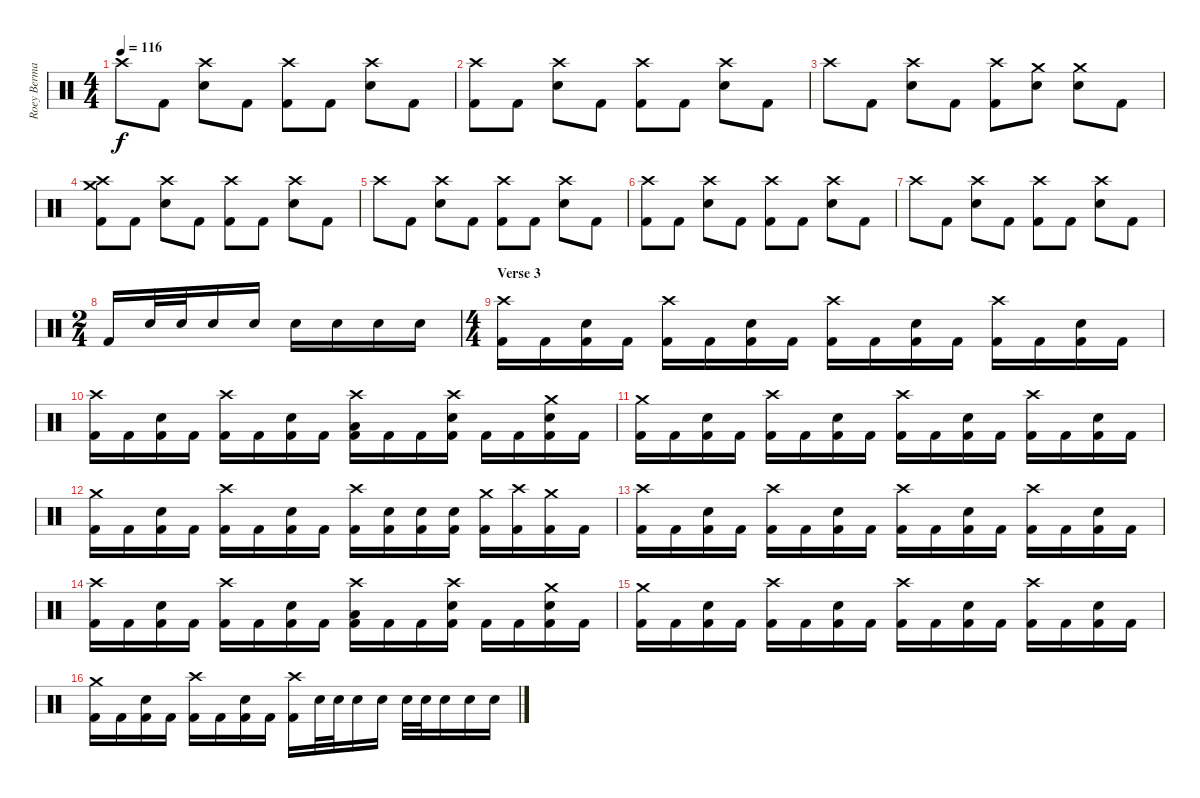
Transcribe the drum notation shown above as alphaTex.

\track ("Roey Berman" "Roey Berma") {instrument percussion}
\staff {score}
\articulation defaults
\ts (4 4)
\tempo 116
\clef neutral
\ks c "Crash high (hit)".8{dy f} "Kick (hit) 2".8
("Crash high (hit)" "Electric Snare (hit)").8 "Kick (hit) 2".8 ("Crash high (hit)" "Kick (hit) 2").8 "Kick (hit) 2".8 ("Crash high (hit)" "Electric Snare (hit)").8 "Kick (hit) 2".8 |
("Crash high (hit)" "Kick (hit) 2").8 "Kick (hit) 2".8 ("Crash high (hit)" "Electric Snare (hit)").8 "Kick (hit) 2".8 ("Crash high (hit)" "Kick (hit) 2").8 "Kick (hit) 2".8 ("Crash high (hit)" "Electric Snare (hit)").8 "Kick (hit) 2".8 |
"Crash high (hit)".8 "Kick (hit) 2".8 ("Crash high (hit)" "Electric Snare (hit)").8 "Kick (hit) 2".8 ("Crash high (hit)" "Kick (hit) 2").8 ("Crash medium (hit)" "Electric Snare (hit)").8 ("Crash medium (hit)" "Electric Snare (hit)").8 "Kick (hit) 2".8 |
("Crash high (hit)" "Crash medium (hit)" "Kick (hit) 2").8 "Kick (hit) 2".8 ("Crash high (hit)" "Electric Snare (hit)").8 "Kick (hit) 2".8 ("Crash high (hit)" "Kick (hit) 2").8 "Kick (hit) 2".8 ("Crash high (hit)" "Electric Snare (hit)").8 "Kick (hit) 2".8 |
"Crash high (hit)".8 "Kick (hit) 2".8 ("Crash high (hit)" "Electric Snare (hit)").8 "Kick (hit) 2".8 ("Crash high (hit)" "Kick (hit) 2").8 "Kick (hit) 2".8 ("Crash high (hit)" "Electric Snare (hit)").8 "Kick (hit) 2".8 |
("Crash high (hit)" "Kick (hit) 2").8 "Kick (hit) 2".8 ("Crash high (hit)" "Electric Snare (hit)").8 "Kick (hit) 2".8 ("Crash high (hit)" "Kick (hit) 2").8 "Kick (hit) 2".8 ("Crash high (hit)" "Electric Snare (hit)").8 "Kick (hit) 2".8 |
"Crash high (hit)".8 "Kick (hit) 2".8 ("Crash high (hit)" "Electric Snare (hit)").8 "Kick (hit) 2".8 ("Crash high (hit)" "Kick (hit) 2").8 "Kick (hit) 2".8 ("Crash high (hit)" "Electric Snare (hit)").8 "Kick (hit) 2".8 |
\ts (2 4)
"Kick (hit) 2".16 "Electric Snare (hit)".32 "Electric Snare (hit)".32 "Electric Snare (hit)".16 "Electric Snare (hit)".16 "Electric Snare (hit)".16 "Electric Snare (hit)".16 "Electric Snare (hit)".16 "Electric Snare (hit)".16 |
\ts (4 4)
\section ("" "Verse 3")
("Crash high (hit)" "Kick (hit) 2").16 "Kick (hit) 2".16 ("Electric Snare (hit)" "Kick (hit) 2").16 "Kick (hit) 2".16 ("Crash high (hit)" "Kick (hit) 2").16 "Kick (hit) 2".16 ("Electric Snare (hit)" "Kick (hit) 2").16 "Kick (hit) 2".16 ("Crash high (hit)" "Kick (hit) 2").16 "Kick (hit) 2".16 ("Electric Snare (hit)" "Kick (hit) 2").16 "Kick (hit) 2".16 ("Crash high (hit)" "Kick (hit) 2").16 "Kick (hit) 2".16 ("Electric Snare (hit)" "Kick (hit) 2").16 "Kick (hit) 2".16 |
("Crash high (hit)" "Kick (hit) 2").16 "Kick (hit) 2".16 ("Electric Snare (hit)" "Kick (hit) 2").16 "Kick (hit) 2".16 ("Crash high (hit)" "Kick (hit) 2").16 "Kick (hit) 2".16 ("Electric Snare (hit)" "Kick (hit) 2").16 "Kick (hit) 2".16 ("Crash high (hit)" "Low Tom (hit)" "Kick (hit) 2").16 "Kick (hit) 2".16 "Kick (hit) 2".16 ("Crash high (hit)" "Electric Snare (hit)" "Kick (hit) 2").16 "Kick (hit) 2".16 "Kick (hit) 2".16 ("Crash medium (hit)" "Electric Snare (hit)" "Kick (hit) 2").16 "Kick (hit) 2".16 |
("Crash medium (hit)" "Kick (hit) 2").16 "Kick (hit) 2".16 ("Electric Snare (hit)" "Kick (hit) 2").16 "Kick (hit) 2".16 ("Crash high (hit)" "Kick (hit) 2").16 "Kick (hit) 2".16 ("Electric Snare (hit)" "Kick (hit) 2").16 "Kick (hit) 2".16 ("Crash high (hit)" "Kick (hit) 2").16 "Kick (hit) 2".16 ("Electric Snare (hit)" "Kick (hit) 2").16 "Kick (hit) 2".16 ("Crash high (hit)" "Kick (hit) 2").16 "Kick (hit) 2".16 ("Electric Snare (hit)" "Kick (hit) 2").16 "Kick (hit) 2".16 |
("Crash medium (hit)" "Kick (hit) 2").16 "Kick (hit) 2".16 ("Electric Snare (hit)" "Kick (hit) 2").16 "Kick (hit) 2".16 ("Crash high (hit)" "Kick (hit) 2").16 "Kick (hit) 2".16 ("Electric Snare (hit)" "Kick (hit) 2").16 "Kick (hit) 2".16 ("Crash high (hit)" "Kick (hit) 2").16 ("Electric Snare (hit)" "Kick (hit) 2").16 ("Electric Snare (hit)" "Kick (hit) 2").16 ("Electric Snare (hit)" "Kick (hit) 2").16 ("Crash medium (hit)" "Kick (hit) 2").16 ("Crash high (hit)" "Kick (hit) 2").16 ("Crash medium (hit)" "Kick (hit) 2").16 "Kick (hit) 2".16 |
("Crash high (hit)" "Kick (hit) 2").16 "Kick (hit) 2".16 ("Electric Snare (hit)" "Kick (hit) 2").16 "Kick (hit) 2".16 ("Crash high (hit)" "Kick (hit) 2").16 "Kick (hit) 2".16 ("Electric Snare (hit)" "Kick (hit) 2").16 "Kick (hit) 2".16 ("Crash high (hit)" "Kick (hit) 2").16 "Kick (hit) 2".16 ("Electric Snare (hit)" "Kick (hit) 2").16 "Kick (hit) 2".16 ("Crash high (hit)" "Kick (hit) 2").16 "Kick (hit) 2".16 ("Electric Snare (hit)" "Kick (hit) 2").16 "Kick (hit) 2".16 |
("Crash high (hit)" "Kick (hit) 2").16 "Kick (hit) 2".16 ("Electric Snare (hit)" "Kick (hit) 2").16 "Kick (hit) 2".16 ("Crash high (hit)" "Kick (hit) 2").16 "Kick (hit) 2".16 ("Electric Snare (hit)" "Kick (hit) 2").16 "Kick (hit) 2".16 ("Crash high (hit)" "Low Tom (hit)" "Kick (hit) 2").16 "Kick (hit) 2".16 "Kick (hit) 2".16 ("Crash high (hit)" "Electric Snare (hit)" "Kick (hit) 2").16 "Kick (hit) 2".16 "Kick (hit) 2".16 ("Crash medium (hit)" "Electric Snare (hit)" "Kick (hit) 2").16 "Kick (hit) 2".16 |
("Crash medium (hit)" "Kick (hit) 2").16 "Kick (hit) 2".16 ("Electric Snare (hit)" "Kick (hit) 2").16 "Kick (hit) 2".16 ("Crash high (hit)" "Kick (hit) 2").16 "Kick (hit) 2".16 ("Electric Snare (hit)" "Kick (hit) 2").16 "Kick (hit) 2".16 ("Crash high (hit)" "Kick (hit) 2").16 "Kick (hit) 2".16 ("Electric Snare (hit)" "Kick (hit) 2").16 "Kick (hit) 2".16 ("Crash high (hit)" "Kick (hit) 2").16 "Kick (hit) 2".16 ("Electric Snare (hit)" "Kick (hit) 2").16 "Kick (hit) 2".16 |
("Crash medium (hit)" "Kick (hit) 2").16 "Kick (hit) 2".16 ("Electric Snare (hit)" "Kick (hit) 2").16 "Kick (hit) 2".16 ("Crash high (hit)" "Kick (hit) 2").16 "Kick (hit) 2".16 ("Electric Snare (hit)" "Kick (hit) 2").16 "Kick (hit) 2".16 ("Crash high (hit)" "Kick (hit) 2").16 "Electric Snare (hit)".32 "Electric Snare (hit)".32 "Electric Snare (hit)".16 "Electric Snare (hit)".16 "Electric Snare (hit)".32 "Electric Snare (hit)".32 "Electric Snare (hit)".16 "Electric Snare (hit)".16 "Electric Snare (hit)".16
